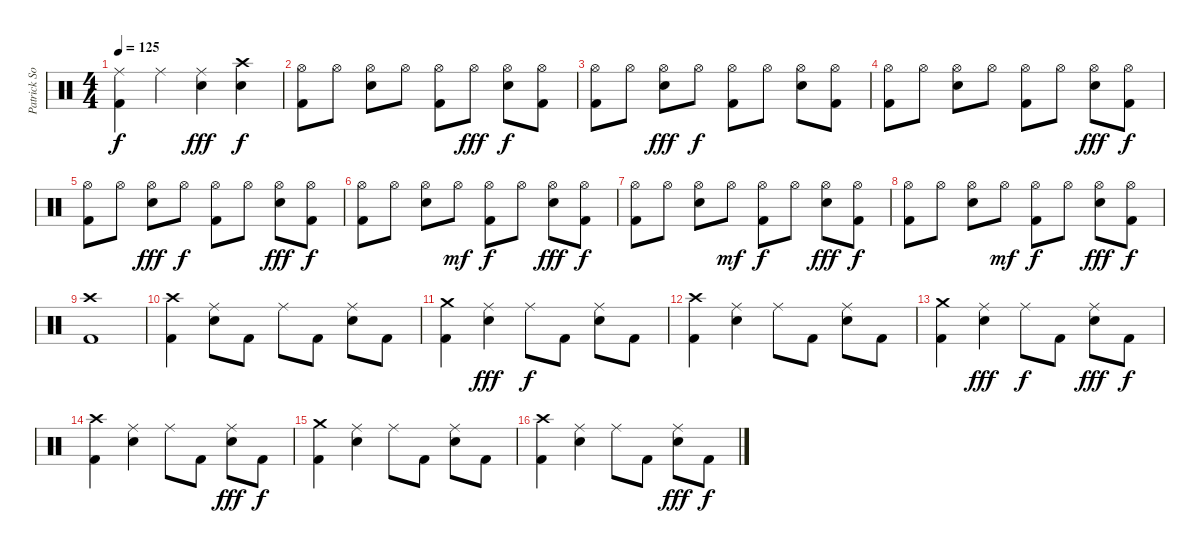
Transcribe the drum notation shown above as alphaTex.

\track ("Patrick Soria" "Patrick So") {instrument percussion}
\staff {score}
\articulation defaults
\ts (4 4)
\tempo 125
\clef neutral
\ks c
("Ride (middle)" "Kick (hit) 2").4{dy f} "Ride (middle)".4 ("Ride (middle)" "Snare (hit) 2").4{dy fff} ("Crash high (hit)" "Snare (hit) 2").4{dy f} |
("Hi-Hat (open)" "Kick (hit) 2").8 "Hi-Hat (open)".8 ("Hi-Hat (open)" "Snare (hit) 2").8 "Hi-Hat (open)".8 ("Hi-Hat (open)" "Kick (hit) 2").8 "Hi-Hat (open)".8{dy fff} ("Hi-Hat (open)" "Snare (hit) 2").8{dy f} ("Hi-Hat (open)" "Kick (hit) 2").8 |
("Hi-Hat (open)" "Kick (hit) 2").8 "Hi-Hat (open)".8 ("Hi-Hat (open)" "Snare (hit) 2").8{dy fff} "Hi-Hat (open)".8{dy f} ("Hi-Hat (open)" "Kick (hit) 2").8 "Hi-Hat (open)".8 ("Hi-Hat (open)" "Snare (hit) 2").8 ("Hi-Hat (open)" "Kick (hit) 2").8 |
("Hi-Hat (open)" "Kick (hit) 2").8 "Hi-Hat (open)".8 ("Hi-Hat (open)" "Snare (hit) 2").8 "Hi-Hat (open)".8 ("Hi-Hat (open)" "Kick (hit) 2").8 "Hi-Hat (open)".8 ("Hi-Hat (open)" "Snare (hit) 2").8{dy fff} ("Hi-Hat (open)" "Kick (hit) 2").8{dy f} |
("Hi-Hat (open)" "Kick (hit) 2").8 "Hi-Hat (open)".8 ("Hi-Hat (open)" "Snare (hit) 2").8{dy fff} "Hi-Hat (open)".8{dy f} ("Hi-Hat (open)" "Kick (hit) 2").8 "Hi-Hat (open)".8 ("Hi-Hat (open)" "Snare (hit) 2").8{dy fff} ("Hi-Hat (open)" "Kick (hit) 2").8{dy f} |
("Hi-Hat (open)" "Kick (hit) 2").8 "Hi-Hat (open)".8 ("Hi-Hat (open)" "Snare (hit) 2").8 "Hi-Hat (open)".8{dy mf} ("Hi-Hat (open)" "Kick (hit) 2").8{dy f} "Hi-Hat (open)".8 ("Hi-Hat (open)" "Snare (hit) 2").8{dy fff} ("Hi-Hat (open)" "Kick (hit) 2").8{dy f} |
("Hi-Hat (open)" "Kick (hit) 2").8 "Hi-Hat (open)".8 ("Hi-Hat (open)" "Snare (hit) 2").8 "Hi-Hat (open)".8{dy mf} ("Hi-Hat (open)" "Kick (hit) 2").8{dy f} "Hi-Hat (open)".8 ("Hi-Hat (open)" "Snare (hit) 2").8{dy fff} ("Hi-Hat (open)" "Kick (hit) 2").8{dy f} |
("Hi-Hat (open)" "Kick (hit) 2").8 "Hi-Hat (open)".8 ("Hi-Hat (open)" "Snare (hit) 2").8 "Hi-Hat (open)".8{dy mf} ("Hi-Hat (open)" "Kick (hit) 2").8{dy f} "Hi-Hat (open)".8 ("Hi-Hat (open)" "Snare (hit) 2").8{dy fff} ("Hi-Hat (open)" "Kick (hit) 2").8{dy f} |
("Crash high (hit)" "Kick (hit) 2").1 |
("Crash high (hit)" "Kick (hit) 2").4 ("Ride (middle)" "Snare (hit) 2").8 "Kick (hit) 2".8 "Ride (middle)".8 "Kick (hit) 2".8 ("Ride (middle)" "Snare (hit) 2").8 "Kick (hit) 2".8 |
("Crash medium (hit)" "Kick (hit) 2").4 ("Ride (middle)" "Snare (hit) 2").4{dy fff} "Ride (middle)".8{dy f} "Kick (hit) 2".8 ("Ride (middle)" "Snare (hit) 2").8 "Kick (hit) 2".8 |
("Crash high (hit)" "Kick (hit) 2").4 ("Ride (middle)" "Snare (hit) 2").4 "Ride (middle)".8 "Kick (hit) 2".8 ("Ride (middle)" "Snare (hit) 2").8 "Kick (hit) 2".8 |
("Crash medium (hit)" "Kick (hit) 2").4 ("Ride (middle)" "Snare (hit) 2").4{dy fff} "Ride (middle)".8{dy f} "Kick (hit) 2".8 ("Ride (middle)" "Snare (hit) 2").8{dy fff} "Kick (hit) 2".8{dy f} |
("Crash high (hit)" "Kick (hit) 2").4 ("Ride (middle)" "Snare (hit) 2").4 "Ride (middle)".8 "Kick (hit) 2".8 ("Ride (middle)" "Snare (hit) 2").8{dy fff} "Kick (hit) 2".8{dy f} |
("Crash medium (hit)" "Kick (hit) 2").4 ("Ride (middle)" "Snare (hit) 2").4 "Ride (middle)".8 "Kick (hit) 2".8 ("Ride (middle)" "Snare (hit) 2").8 "Kick (hit) 2".8 |
("Crash high (hit)" "Kick (hit) 2").4 ("Ride (middle)" "Snare (hit) 2").4 "Ride (middle)".8 "Kick (hit) 2".8 ("Ride (middle)" "Snare (hit) 2").8{dy fff} "Kick (hit) 2".8{dy f}
